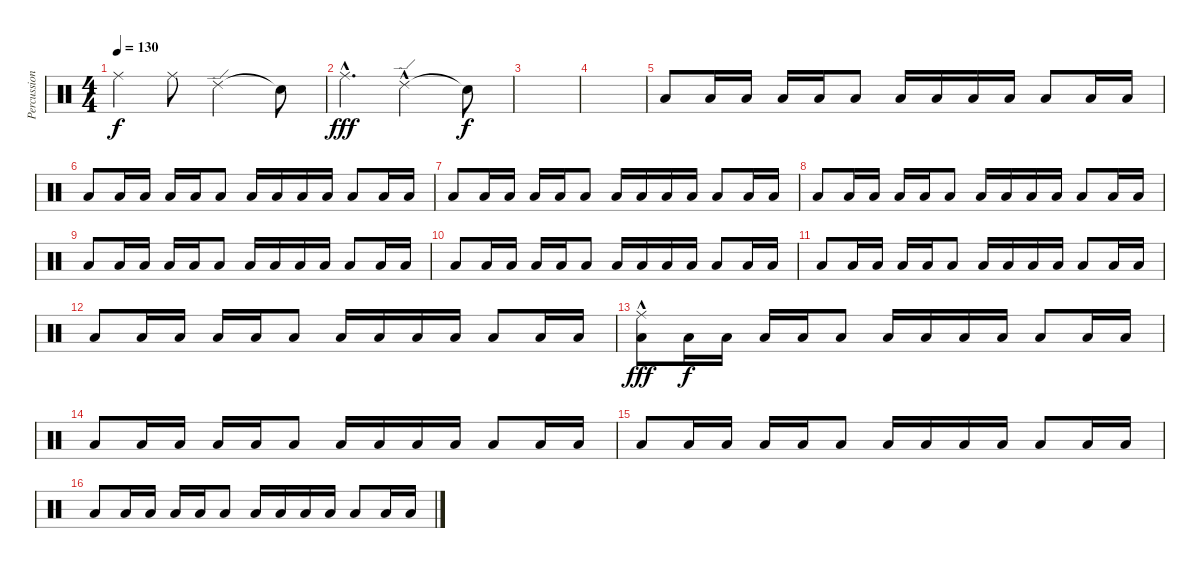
\track ("Percussion" "Percussion") {instrument percussion}
\staff {score}
\articulation defaults
\ts (4 4)
\tempo 130
\clef neutral
\ks c "Ride (middle)".4{dy f} "Ride (middle)".8 "Ride (edge) 2".2 "Snare (hit)"{t}.8
|
"Ride (middle)"{hac}.4{d dy fff} "Ride (edge) 2"{hac}.2 "Snare (hit)"{t}.8{dy f} |
|
|
"Low Floor Tom (hit)".8{volume 6} "Low Floor Tom (hit)".16 "Low Floor Tom (hit)".16 "Low Floor Tom (hit)".16 "Low Floor Tom (hit)".16 "Low Floor Tom (hit)".8 "Low Floor Tom (hit)".16 "Low Floor Tom (hit)".16 "Low Floor Tom (hit)".16 "Low Floor Tom (hit)".16 "Low Floor Tom (hit)".8 "Low Floor Tom (hit)".16 "Low Floor Tom (hit)".16 |
"Low Floor Tom (hit)".8 "Low Floor Tom (hit)".16 "Low Floor Tom (hit)".16 "Low Floor Tom (hit)".16 "Low Floor Tom (hit)".16 "Low Floor Tom (hit)".8 "Low Floor Tom (hit)".16 "Low Floor Tom (hit)".16 "Low Floor Tom (hit)".16 "Low Floor Tom (hit)".16 "Low Floor Tom (hit)".8 "Low Floor Tom (hit)".16 "Low Floor Tom (hit)".16 |
"Low Floor Tom (hit)".8 "Low Floor Tom (hit)".16 "Low Floor Tom (hit)".16 "Low Floor Tom (hit)".16 "Low Floor Tom (hit)".16 "Low Floor Tom (hit)".8 "Low Floor Tom (hit)".16 "Low Floor Tom (hit)".16 "Low Floor Tom (hit)".16 "Low Floor Tom (hit)".16 "Low Floor Tom (hit)".8 "Low Floor Tom (hit)".16 "Low Floor Tom (hit)".16 |
"Low Floor Tom (hit)".8 "Low Floor Tom (hit)".16 "Low Floor Tom (hit)".16 "Low Floor Tom (hit)".16 "Low Floor Tom (hit)".16 "Low Floor Tom (hit)".8 "Low Floor Tom (hit)".16 "Low Floor Tom (hit)".16 "Low Floor Tom (hit)".16 "Low Floor Tom (hit)".16 "Low Floor Tom (hit)".8 "Low Floor Tom (hit)".16 "Low Floor Tom (hit)".16 |
"Low Floor Tom (hit)".8 "Low Floor Tom (hit)".16 "Low Floor Tom (hit)".16 "Low Floor Tom (hit)".16 "Low Floor Tom (hit)".16 "Low Floor Tom (hit)".8 "Low Floor Tom (hit)".16 "Low Floor Tom (hit)".16 "Low Floor Tom (hit)".16 "Low Floor Tom (hit)".16 "Low Floor Tom (hit)".8 "Low Floor Tom (hit)".16 "Low Floor Tom (hit)".16 |
"Low Floor Tom (hit)".8 "Low Floor Tom (hit)".16 "Low Floor Tom (hit)".16 "Low Floor Tom (hit)".16 "Low Floor Tom (hit)".16 "Low Floor Tom (hit)".8 "Low Floor Tom (hit)".16 "Low Floor Tom (hit)".16 "Low Floor Tom (hit)".16 "Low Floor Tom (hit)".16 "Low Floor Tom (hit)".8 "Low Floor Tom (hit)".16 "Low Floor Tom (hit)".16 |
"Low Floor Tom (hit)".8 "Low Floor Tom (hit)".16 "Low Floor Tom (hit)".16 "Low Floor Tom (hit)".16 "Low Floor Tom (hit)".16 "Low Floor Tom (hit)".8 "Low Floor Tom (hit)".16 "Low Floor Tom (hit)".16 "Low Floor Tom (hit)".16 "Low Floor Tom (hit)".16 "Low Floor Tom (hit)".8 "Low Floor Tom (hit)".16 "Low Floor Tom (hit)".16 |
"Low Floor Tom (hit)".8 "Low Floor Tom (hit)".16 "Low Floor Tom (hit)".16 "Low Floor Tom (hit)".16 "Low Floor Tom (hit)".16 "Low Floor Tom (hit)".8 "Low Floor Tom (hit)".16 "Low Floor Tom (hit)".16 "Low Floor Tom (hit)".16 "Low Floor Tom (hit)".16 "Low Floor Tom (hit)".8 "Low Floor Tom (hit)".16 "Low Floor Tom (hit)".16 |
("Ride (middle)"{hac} "Low Floor Tom (hit)").8{dy fff} "Low Floor Tom (hit)".16{dy f} "Low Floor Tom (hit)".16 "Low Floor Tom (hit)".16 "Low Floor Tom (hit)".16 "Low Floor Tom (hit)".8 "Low Floor Tom (hit)".16 "Low Floor Tom (hit)".16 "Low Floor Tom (hit)".16 "Low Floor Tom (hit)".16 "Low Floor Tom (hit)".8 "Low Floor Tom (hit)".16 "Low Floor Tom (hit)".16 |
"Low Floor Tom (hit)".8 "Low Floor Tom (hit)".16 "Low Floor Tom (hit)".16 "Low Floor Tom (hit)".16 "Low Floor Tom (hit)".16 "Low Floor Tom (hit)".8 "Low Floor Tom (hit)".16 "Low Floor Tom (hit)".16 "Low Floor Tom (hit)".16 "Low Floor Tom (hit)".16 "Low Floor Tom (hit)".8 "Low Floor Tom (hit)".16 "Low Floor Tom (hit)".16 |
"Low Floor Tom (hit)".8 "Low Floor Tom (hit)".16 "Low Floor Tom (hit)".16 "Low Floor Tom (hit)".16 "Low Floor Tom (hit)".16 "Low Floor Tom (hit)".8 "Low Floor Tom (hit)".16 "Low Floor Tom (hit)".16 "Low Floor Tom (hit)".16 "Low Floor Tom (hit)".16 "Low Floor Tom (hit)".8 "Low Floor Tom (hit)".16 "Low Floor Tom (hit)".16 |
"Low Floor Tom (hit)".8 "Low Floor Tom (hit)".16 "Low Floor Tom (hit)".16 "Low Floor Tom (hit)".16 "Low Floor Tom (hit)".16 "Low Floor Tom (hit)".8 "Low Floor Tom (hit)".16 "Low Floor Tom (hit)".16 "Low Floor Tom (hit)".16 "Low Floor Tom (hit)".16 "Low Floor Tom (hit)".8 "Low Floor Tom (hit)".16 "Low Floor Tom (hit)".16
